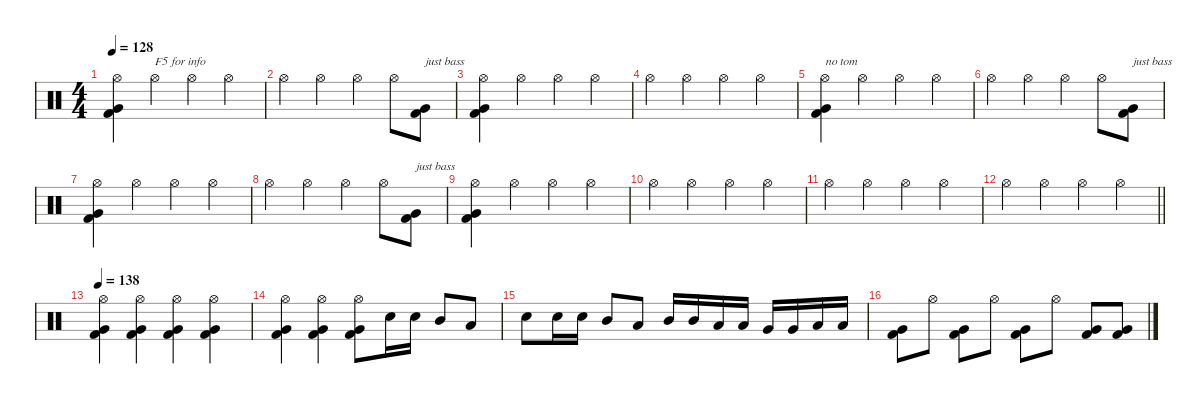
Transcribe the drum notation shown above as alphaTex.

\defaultSystemsLayout 4
\hideDynamics
\bracketExtendMode nobrackets
\singleTrackTrackNamePolicy hidden
\multiTrackTrackNamePolicy hidden
\otherSystemsTrackNameOrientation horizontal
\track ("Drums" "drm.") {instrument percussion}
\staff {score}
\articulation defaults
\ts (4 4)
\tempo 128
\clef neutral
\ks c
("Hi-Hat (open)" "Very Low Tom (hit)" "Kick (hit) 2").4{dy f beam Down} "Hi-Hat (open)".4{txt "F5 for info" beam Down} "Hi-Hat (open)".4{beam Down} "Hi-Hat (open)".4{beam Down} |
"Hi-Hat (open)".4{beam Down} "Hi-Hat (open)".4{beam Down} "Hi-Hat (open)".4{beam Down} "Hi-Hat (open)".8{beam Down} ("Very Low Tom (hit)" "Kick (hit) 2").8{txt "just bass" beam Down} |
("Hi-Hat (open)" "Very Low Tom (hit)" "Kick (hit) 2").4{beam Down} "Hi-Hat (open)".4{beam Down} "Hi-Hat (open)".4{beam Down} "Hi-Hat (open)".4{beam Down} |
"Hi-Hat (open)".4{beam Down} "Hi-Hat (open)".4{beam Down} "Hi-Hat (open)".4{beam Down} "Hi-Hat (open)".4{beam Down} |
("Hi-Hat (open)" "Very Low Tom (hit)" "Kick (hit) 2").4{txt "no tom" beam Down} "Hi-Hat (open)".4{beam Down} "Hi-Hat (open)".4{beam Down} "Hi-Hat (open)".4{beam Down} |
"Hi-Hat (open)".4{beam Down} "Hi-Hat (open)".4{beam Down} "Hi-Hat (open)".4{beam Down} "Hi-Hat (open)".8{beam Down} ("Very Low Tom (hit)" "Kick (hit) 2").8{txt "just bass" beam Down} |
("Hi-Hat (open)" "Very Low Tom (hit)" "Kick (hit) 2").4{beam Down} "Hi-Hat (open)".4{beam Down} "Hi-Hat (open)".4{beam Down} "Hi-Hat (open)".4{beam Down} |
"Hi-Hat (open)".4{beam Down} "Hi-Hat (open)".4{beam Down} "Hi-Hat (open)".4{beam Down} "Hi-Hat (open)".8{beam Down} ("Very Low Tom (hit)" "Kick (hit) 2").8{txt "just bass" beam Down} |
("Hi-Hat (open)" "Very Low Tom (hit)" "Kick (hit) 2").4{beam Down} "Hi-Hat (open)".4{beam Down} "Hi-Hat (open)".4{beam Down} "Hi-Hat (open)".4{beam Down} |
"Hi-Hat (open)".4{beam Down} "Hi-Hat (open)".4{beam Down} "Hi-Hat (open)".4{beam Down} "Hi-Hat (open)".4{beam Down} |
"Hi-Hat (open)".4{beam Down} "Hi-Hat (open)".4{beam Down} "Hi-Hat (open)".4{beam Down} "Hi-Hat (open)".4{beam Down} |
\barLineRight lightlight "Hi-Hat (open)".4{beam Down} "Hi-Hat (open)".4{beam Down} "Hi-Hat (open)".4{beam Down} "Hi-Hat (open)".4{beam Down}
|
\tempo 138
("Hi-Hat (open)" "Very Low Tom (hit)" "Kick (hit) 2").4{beam Down} ("Hi-Hat (open)" "Very Low Tom (hit)" "Kick (hit) 2").4{beam Down} ("Hi-Hat (open)" "Very Low Tom (hit)" "Kick (hit) 2").4{beam Down} ("Hi-Hat (open)" "Very Low Tom (hit)" "Kick (hit) 2").4{beam Down} |
("Hi-Hat (open)" "Very Low Tom (hit)" "Kick (hit) 2").4{beam Down} ("Hi-Hat (open)" "Very Low Tom (hit)" "Kick (hit) 2").4{beam Down} ("Hi-Hat (open)" "Very Low Tom (hit)" "Kick (hit) 2").8{beam Down} "Snare (hit) 2".16{beam Down} "Snare (hit) 2".16{beam Down} "Mid Tom (hit)".8{beam Up} "Low Tom (hit)".8{beam Up} |
"Snare (hit) 2".8{beam Down} "Snare (hit) 2".16{beam Down} "Snare (hit) 2".16{beam Down} "Mid Tom (hit)".8{beam Up} "Low Tom (hit)".8{beam Up} "Mid Tom (hit)".16{beam Up} "Mid Tom (hit)".16{beam Up} "Low Tom (hit)".16{beam Up} "Low Tom (hit)".16{beam Up} "Very Low Tom (hit)".16{beam Up} "Very Low Tom (hit)".16{beam Up} "Low Floor Tom (hit)".16{beam Up} "Low Floor Tom (hit)".16{beam Up} |
("Very Low Tom (hit)" "Kick (hit) 2").8{beam Down} "Hi-Hat (open)".8{dy mf beam Down} ("Very Low Tom (hit)" "Kick (hit) 2").8{dy f beam Down} "Hi-Hat (open)".8{dy mf beam Down} ("Very Low Tom (hit)" "Kick (hit) 2").8{dy f beam Down} "Hi-Hat (open)".8{dy mf beam Down} ("Very Low Tom (hit)" "Kick (hit) 2").8{dy f beam Up} ("Very Low Tom (hit)" "Kick (hit) 2").8{beam Up}
